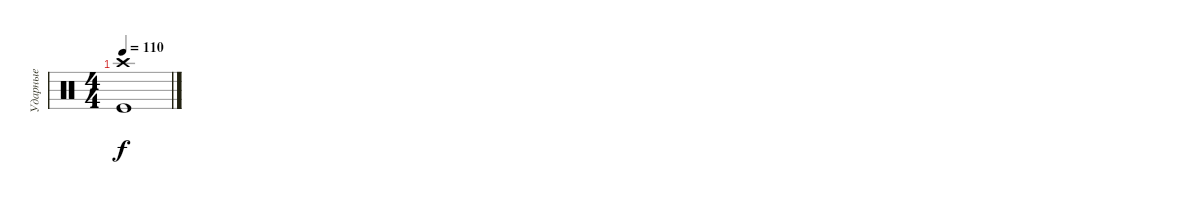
\track ("Ударные" "Ударные") {instrument percussion}
\staff {score}
\articulation defaults
\ts (4 4)
\tempo 110
\clef neutral
\ks c
("Kick (hit)" "Crash high (hit)").1{dy f}
